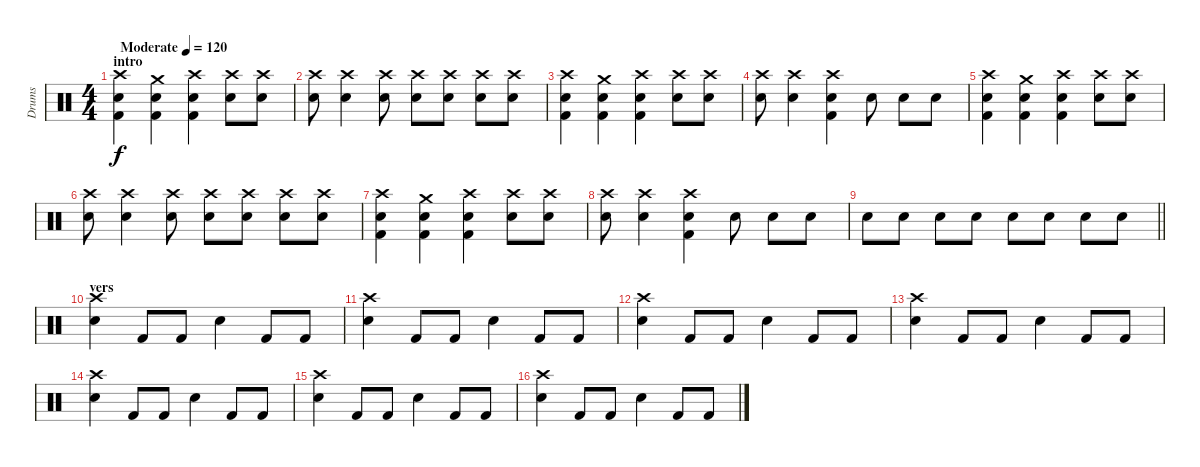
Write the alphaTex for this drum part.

\track ("Drums" "Drums") {instrument percussion}
\staff {score}
\articulation defaults
\ts (4 4)
\section ("" "intro")
\tempo (120 "Moderate")
\clef neutral
\ks c
("Electric Snare (hit)" "Kick (hit) 2" "Crash high (hit)").4{dy f} ("Electric Snare (hit)" "Kick (hit) 2" "Crash medium (hit)").4 ("Electric Snare (hit)" "Kick (hit) 2" "Crash high (hit)").4 ("Electric Snare (hit)" "Crash high (hit)").8 ("Electric Snare (hit)" "Crash high (hit)").8 |
("Electric Snare (hit)" "Crash high (hit)").8 ("Electric Snare (hit)" "Crash high (hit)").4 ("Electric Snare (hit)" "Crash high (hit)").8 ("Electric Snare (hit)" "Crash high (hit)").8 ("Electric Snare (hit)" "Crash high (hit)").8 ("Electric Snare (hit)" "Crash high (hit)").8 ("Electric Snare (hit)" "Crash high (hit)").8 |
("Electric Snare (hit)" "Kick (hit) 2" "Crash high (hit)").4 ("Electric Snare (hit)" "Kick (hit) 2" "Crash medium (hit)").4 ("Electric Snare (hit)" "Kick (hit) 2" "Crash high (hit)").4 ("Electric Snare (hit)" "Crash high (hit)").8 ("Electric Snare (hit)" "Crash high (hit)").8 |
("Electric Snare (hit)" "Crash high (hit)").8 ("Electric Snare (hit)" "Crash high (hit)").4 ("Electric Snare (hit)" "Kick (hit) 2" "Crash high (hit)").4 "Electric Snare (hit)".8 "Electric Snare (hit)".8 "Electric Snare (hit)".8 |
("Electric Snare (hit)" "Kick (hit) 2" "Crash high (hit)").4 ("Electric Snare (hit)" "Kick (hit) 2" "Crash medium (hit)").4 ("Electric Snare (hit)" "Kick (hit) 2" "Crash high (hit)").4 ("Electric Snare (hit)" "Crash high (hit)").8 ("Electric Snare (hit)" "Crash high (hit)").8 |
("Electric Snare (hit)" "Crash high (hit)").8 ("Electric Snare (hit)" "Crash high (hit)").4 ("Electric Snare (hit)" "Crash high (hit)").8 ("Electric Snare (hit)" "Crash high (hit)").8 ("Electric Snare (hit)" "Crash high (hit)").8 ("Electric Snare (hit)" "Crash high (hit)").8 ("Electric Snare (hit)" "Crash high (hit)").8 |
("Electric Snare (hit)" "Kick (hit) 2" "Crash high (hit)").4 ("Electric Snare (hit)" "Kick (hit) 2" "Crash medium (hit)").4 ("Electric Snare (hit)" "Kick (hit) 2" "Crash high (hit)").4 ("Electric Snare (hit)" "Crash high (hit)").8 ("Electric Snare (hit)" "Crash high (hit)").8 |
("Electric Snare (hit)" "Crash high (hit)").8 ("Electric Snare (hit)" "Crash high (hit)").4 ("Electric Snare (hit)" "Kick (hit) 2" "Crash high (hit)").4 "Electric Snare (hit)".8 "Electric Snare (hit)".8 "Electric Snare (hit)".8 |
\barLineRight lightlight "Electric Snare (hit)".8 "Electric Snare (hit)".8 "Electric Snare (hit)".8 "Electric Snare (hit)".8 "Electric Snare (hit)".8 "Electric Snare (hit)".8 "Electric Snare (hit)".8 "Electric Snare (hit)".8
|
\section ("" "vers")
("Electric Snare (hit)" "Crash high (hit)").4 "Kick (hit) 2".8 "Kick (hit) 2".8 "Electric Snare (hit)".4 "Kick (hit) 2".8 "Kick (hit) 2".8 |
("Electric Snare (hit)" "Crash high (hit)").4 "Kick (hit) 2".8 "Kick (hit) 2".8 "Electric Snare (hit)".4 "Kick (hit) 2".8 "Kick (hit) 2".8 |
("Electric Snare (hit)" "Crash high (hit)").4 "Kick (hit) 2".8 "Kick (hit) 2".8 "Electric Snare (hit)".4 "Kick (hit) 2".8 "Kick (hit) 2".8 |
("Electric Snare (hit)" "Crash high (hit)").4 "Kick (hit) 2".8 "Kick (hit) 2".8 "Electric Snare (hit)".4 "Kick (hit) 2".8 "Kick (hit) 2".8 |
("Electric Snare (hit)" "Crash high (hit)").4 "Kick (hit) 2".8 "Kick (hit) 2".8 "Electric Snare (hit)".4 "Kick (hit) 2".8 "Kick (hit) 2".8 |
("Electric Snare (hit)" "Crash high (hit)").4 "Kick (hit) 2".8 "Kick (hit) 2".8 "Electric Snare (hit)".4 "Kick (hit) 2".8 "Kick (hit) 2".8 |
("Electric Snare (hit)" "Crash high (hit)").4 "Kick (hit) 2".8 "Kick (hit) 2".8 "Electric Snare (hit)".4 "Kick (hit) 2".8 "Kick (hit) 2".8
